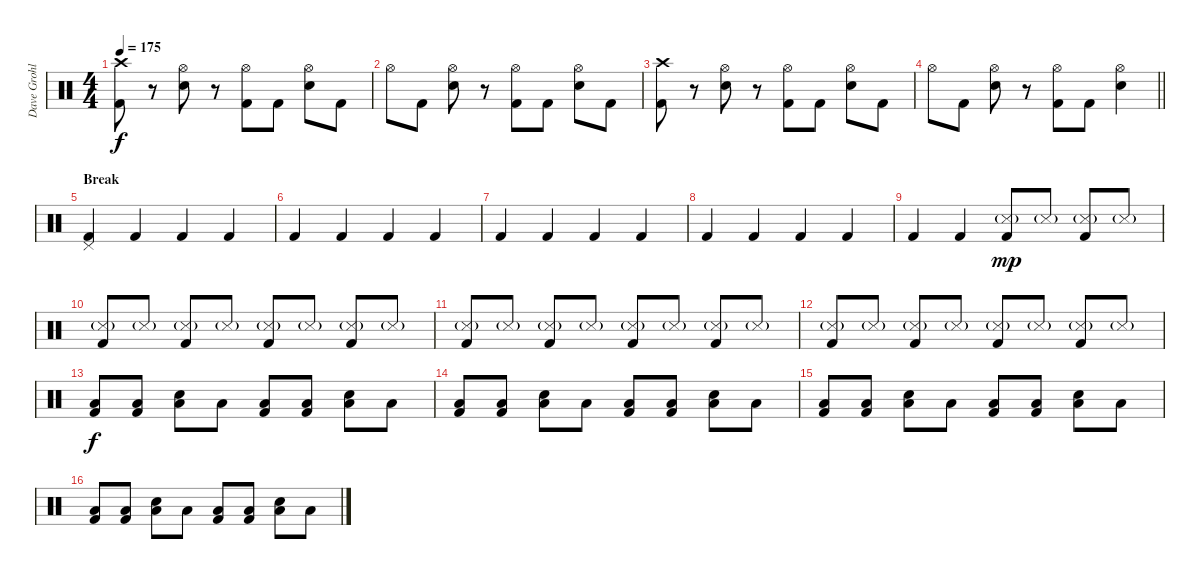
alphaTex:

\track ("Dave Grohl" "Dave Grohl") {solo instrument percussion}
\staff {score}
\articulation defaults
\ts (4 4)
\tempo 175
\clef neutral
\ks c
("Crash high (hit)" "Kick (hit) 2").8{dy f} r.8 ("Hi-Hat (open)" "Electric Snare (hit)").8 r.8 ("Hi-Hat (open)" "Kick (hit) 2").8 "Kick (hit) 2".8 ("Hi-Hat (open)" "Electric Snare (hit)").8 "Kick (hit) 2".8 |
"Hi-Hat (open)".8 "Kick (hit) 2".8 ("Hi-Hat (open)" "Electric Snare (hit)").8 r.8 ("Hi-Hat (open)" "Kick (hit) 2").8 "Kick (hit) 2".8 ("Hi-Hat (open)" "Electric Snare (hit)").8 "Kick (hit) 2".8 |
("Crash high (hit)" "Kick (hit) 2").8 r.8 ("Hi-Hat (open)" "Electric Snare (hit)").8 r.8 ("Hi-Hat (open)" "Kick (hit) 2").8 "Kick (hit) 2".8 ("Hi-Hat (open)" "Electric Snare (hit)").8 "Kick (hit) 2".8 |
\barLineRight lightlight "Hi-Hat (open)".8 "Kick (hit) 2".8
("Hi-Hat (open)" "Electric Snare (hit)").8 r.8 ("Hi-Hat (open)" "Kick (hit) 2").8 "Kick (hit) 2".8 ("Hi-Hat (open)" "Electric Snare (hit)").4 |
\section ("" "Break")
("Pedal Hi-Hat (hit)" "Kick (hit) 2").4 "Kick (hit) 2".4 "Kick (hit) 2".4 "Kick (hit) 2".4 |
"Kick (hit) 2".4 "Kick (hit) 2".4 "Kick (hit) 2".4 "Kick (hit) 2".4 |
"Kick (hit) 2".4 "Kick (hit) 2".4 "Kick (hit) 2".4 "Kick (hit) 2".4 |
"Kick (hit) 2".4 "Kick (hit) 2".4 "Kick (hit) 2".4 "Kick (hit) 2".4 |
"Kick (hit) 2".4 "Kick (hit) 2".4 ("Metronome (hit)"{g} "Kick (hit) 2").8{dy mp} "Metronome (hit)"{g}.8 ("Metronome (hit)"{g} "Kick (hit) 2").8 "Metronome (hit)"{g}.8 |
("Metronome (hit)"{g} "Kick (hit) 2").8 "Metronome (hit)"{g}.8 ("Metronome (hit)"{g} "Kick (hit) 2").8 "Metronome (hit)"{g}.8 ("Metronome (hit)"{g} "Kick (hit) 2").8 "Metronome (hit)"{g}.8 ("Metronome (hit)"{g} "Kick (hit) 2").8 "Metronome (hit)"{g}.8 |
("Metronome (hit)"{g} "Kick (hit) 2").8 "Metronome (hit)"{g}.8 ("Metronome (hit)"{g} "Kick (hit) 2").8 "Metronome (hit)"{g}.8 ("Metronome (hit)"{g} "Kick (hit) 2").8 "Metronome (hit)"{g}.8 ("Metronome (hit)"{g} "Kick (hit) 2").8 "Metronome (hit)"{g}.8 |
("Metronome (hit)"{g} "Kick (hit) 2").8 "Metronome (hit)"{g}.8 ("Metronome (hit)"{g} "Kick (hit) 2").8 "Metronome (hit)"{g}.8 ("Metronome (hit)"{g} "Kick (hit) 2").8 "Metronome (hit)"{g}.8 ("Metronome (hit)"{g} "Kick (hit) 2").8 "Metronome (hit)"{g}.8 |
("Low Tom (hit)" "Kick (hit) 2").8{dy f} ("Low Tom (hit)" "Kick (hit) 2").8 ("Electric Snare (hit)" "Low Tom (hit)").8 "Low Tom (hit)".8 ("Low Tom (hit)" "Kick (hit) 2").8 ("Low Tom (hit)" "Kick (hit) 2").8 ("Electric Snare (hit)" "Low Tom (hit)").8 "Low Tom (hit)".8 |
("Low Tom (hit)" "Kick (hit) 2").8 ("Low Tom (hit)" "Kick (hit) 2").8 ("Electric Snare (hit)" "Low Tom (hit)").8 "Low Tom (hit)".8 ("Low Tom (hit)" "Kick (hit) 2").8 ("Low Tom (hit)" "Kick (hit) 2").8 ("Electric Snare (hit)" "Low Tom (hit)").8 "Low Tom (hit)".8 |
("Low Tom (hit)" "Kick (hit) 2").8 ("Low Tom (hit)" "Kick (hit) 2").8 ("Electric Snare (hit)" "Low Tom (hit)").8 "Low Tom (hit)".8 ("Low Tom (hit)" "Kick (hit) 2").8 ("Low Tom (hit)" "Kick (hit) 2").8 ("Electric Snare (hit)" "Low Tom (hit)").8 "Low Tom (hit)".8 |
("Low Tom (hit)" "Kick (hit) 2").8 ("Low Tom (hit)" "Kick (hit) 2").8 ("Electric Snare (hit)" "Low Tom (hit)").8 "Low Tom (hit)".8 ("Low Tom (hit)" "Kick (hit) 2").8 ("Low Tom (hit)" "Kick (hit) 2").8 ("Electric Snare (hit)" "Low Tom (hit)").8 "Low Tom (hit)".8
